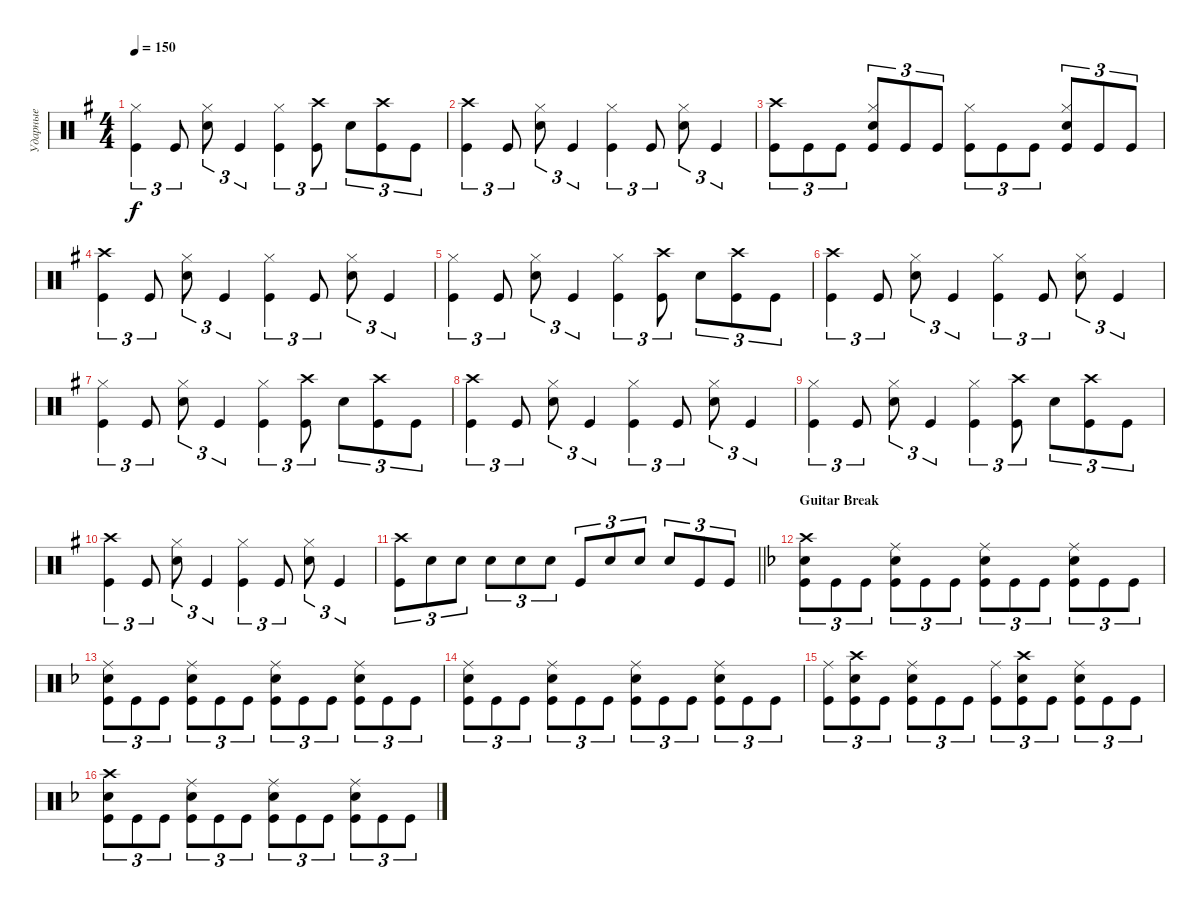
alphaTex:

\track ("Ударные" "Ударные") {instrument percussion}
\staff {score}
\articulation defaults
\ts (4 4)
\tempo 150
\clef neutral
\ks eminor
("Kick (hit)" "Hi-Hat (closed)").4{tu (3 2) dy f} "Kick (hit)".8{tu (3 2)} ("Snare (hit) 2" "Hi-Hat (closed)").8{tu (3 2)} "Kick (hit)".4{tu (3 2)} ("Kick (hit)" "Hi-Hat (closed)").4{tu (3 2)} ("Kick (hit)" "Crash high (hit)").8{tu (3 2)} "Snare (hit) 2".8{tu (3 2)} ("Kick (hit)" "Crash high (hit)").8{tu (3 2)} "Kick (hit)".8{tu (3 2)} |
("Kick (hit)" "Crash high (hit)").4{tu (3 2)} "Kick (hit)".8{tu (3 2)} ("Snare (hit) 2" "Hi-Hat (closed)").8{tu (3 2)} "Kick (hit)".4{tu (3 2)} ("Kick (hit)" "Hi-Hat (closed)").4{tu (3 2)} "Kick (hit)".8{tu (3 2)} ("Snare (hit) 2" "Hi-Hat (closed)").8{tu (3 2)} "Kick (hit)".4{tu (3 2)} |
("Kick (hit)" "Crash high (hit)").8{tu (3 2)} "Kick (hit)".8{tu (3 2)} "Kick (hit)".8{tu (3 2)} ("Snare (hit) 2" "Hi-Hat (closed)" "Kick (hit)").8{tu (3 2)} "Kick (hit)".8{tu (3 2)} "Kick (hit)".8{tu (3 2)} ("Kick (hit)" "Hi-Hat (closed)").8{tu (3 2)} "Kick (hit)".8{tu (3 2)} "Kick (hit)".8{tu (3 2)} ("Snare (hit) 2" "Hi-Hat (closed)" "Kick (hit)").8{tu (3 2)} "Kick (hit)".8{tu (3 2)} "Kick (hit)".8{tu (3 2)} |
("Kick (hit)" "Crash high (hit)").4{tu (3 2)} "Kick (hit)".8{tu (3 2)} ("Snare (hit) 2" "Hi-Hat (closed)").8{tu (3 2)} "Kick (hit)".4{tu (3 2)} ("Kick (hit)" "Hi-Hat (closed)").4{tu (3 2)} "Kick (hit)".8{tu (3 2)} ("Snare (hit) 2" "Hi-Hat (closed)").8{tu (3 2)} "Kick (hit)".4{tu (3 2)} |
("Kick (hit)" "Hi-Hat (closed)").4{tu (3 2)} "Kick (hit)".8{tu (3 2)} ("Snare (hit) 2" "Hi-Hat (closed)").8{tu (3 2)} "Kick (hit)".4{tu (3 2)} ("Kick (hit)" "Hi-Hat (closed)").4{tu (3 2)} ("Kick (hit)" "Crash high (hit)").8{tu (3 2)} "Snare (hit) 2".8{tu (3 2)} ("Kick (hit)" "Crash high (hit)").8{tu (3 2)} "Kick (hit)".8{tu (3 2)} |
("Kick (hit)" "Crash high (hit)").4{tu (3 2)} "Kick (hit)".8{tu (3 2)} ("Snare (hit) 2" "Hi-Hat (closed)").8{tu (3 2)} "Kick (hit)".4{tu (3 2)} ("Kick (hit)" "Hi-Hat (closed)").4{tu (3 2)} "Kick (hit)".8{tu (3 2)} ("Snare (hit) 2" "Hi-Hat (closed)").8{tu (3 2)} "Kick (hit)".4{tu (3 2)} |
("Kick (hit)" "Hi-Hat (closed)").4{tu (3 2)} "Kick (hit)".8{tu (3 2)} ("Snare (hit) 2" "Hi-Hat (closed)").8{tu (3 2)} "Kick (hit)".4{tu (3 2)} ("Kick (hit)" "Hi-Hat (closed)").4{tu (3 2)} ("Kick (hit)" "Crash high (hit)").8{tu (3 2)} "Snare (hit) 2".8{tu (3 2)} ("Kick (hit)" "Crash high (hit)").8{tu (3 2)} "Kick (hit)".8{tu (3 2)} |
("Kick (hit)" "Crash high (hit)").4{tu (3 2)} "Kick (hit)".8{tu (3 2)} ("Snare (hit) 2" "Hi-Hat (closed)").8{tu (3 2)} "Kick (hit)".4{tu (3 2)} ("Kick (hit)" "Hi-Hat (closed)").4{tu (3 2)} "Kick (hit)".8{tu (3 2)} ("Snare (hit) 2" "Hi-Hat (closed)").8{tu (3 2)} "Kick (hit)".4{tu (3 2)} |
("Kick (hit)" "Hi-Hat (closed)").4{tu (3 2)} "Kick (hit)".8{tu (3 2)} ("Snare (hit) 2" "Hi-Hat (closed)").8{tu (3 2)} "Kick (hit)".4{tu (3 2)} ("Kick (hit)" "Hi-Hat (closed)").4{tu (3 2)} ("Kick (hit)" "Crash high (hit)").8{tu (3 2)} "Snare (hit) 2".8{tu (3 2)} ("Kick (hit)" "Crash high (hit)").8{tu (3 2)} "Kick (hit)".8{tu (3 2)} |
("Kick (hit)" "Crash high (hit)").4{tu (3 2)} "Kick (hit)".8{tu (3 2)} ("Snare (hit) 2" "Hi-Hat (closed)").8{tu (3 2)} "Kick (hit)".4{tu (3 2)} ("Kick (hit)" "Hi-Hat (closed)").4{tu (3 2)} "Kick (hit)".8{tu (3 2)} ("Snare (hit) 2" "Hi-Hat (closed)").8{tu (3 2)} "Kick (hit)".4{tu (3 2)} |
\barLineRight lightlight
("Kick (hit)" "Crash high (hit)").8{tu (3 2)} "Snare (hit) 2".8{tu (3 2)} "Snare (hit) 2".8{tu (3 2)} "Snare (hit) 2".8{tu (3 2)} "Snare (hit) 2".8{tu (3 2)} "Snare (hit) 2".8{tu (3 2)} "Kick (hit)".8{tu (3 2)} "Snare (hit) 2".8{tu (3 2)} "Snare (hit) 2".8{tu (3 2)} "Snare (hit) 2".8{tu (3 2)} "Kick (hit)".8{tu (3 2)} "Kick (hit)".8{tu (3 2)} |
\section ("" "Guitar Break")
\ks dminor
("Kick (hit)" "Snare (hit) 2" "Crash high (hit)").8{tu (3 2)} "Kick (hit)".8{tu (3 2)} "Kick (hit)".8{tu (3 2)} ("Snare (hit) 2" "Kick (hit)" "Ride (middle)").8{tu (3 2)} "Kick (hit)".8{tu (3 2)} "Kick (hit)".8{tu (3 2)} ("Kick (hit)" "Ride (middle)" "Snare (hit) 2").8{tu (3 2)} "Kick (hit)".8{tu (3 2)} "Kick (hit)".8{tu (3 2)} ("Kick (hit)" "Snare (hit) 2" "Ride (middle)").8{tu (3 2)} "Kick (hit)".8{tu (3 2)} "Kick (hit)".8{tu (3 2)} |
("Kick (hit)" "Ride (middle)" "Snare (hit) 2").8{tu (3 2)} "Kick (hit)".8{tu (3 2)} "Kick (hit)".8{tu (3 2)} ("Snare (hit) 2" "Kick (hit)" "Ride (middle)").8{tu (3 2)} "Kick (hit)".8{tu (3 2)} "Kick (hit)".8{tu (3 2)} ("Kick (hit)" "Ride (middle)" "Snare (hit) 2").8{tu (3 2)} "Kick (hit)".8{tu (3 2)} "Kick (hit)".8{tu (3 2)} ("Kick (hit)" "Snare (hit) 2" "Ride (middle)").8{tu (3 2)} "Kick (hit)".8{tu (3 2)} "Kick (hit)".8{tu (3 2)} |
("Kick (hit)" "Ride (middle)" "Snare (hit) 2").8{tu (3 2)} "Kick (hit)".8{tu (3 2)} "Kick (hit)".8{tu (3 2)} ("Snare (hit) 2" "Kick (hit)" "Ride (middle)").8{tu (3 2)} "Kick (hit)".8{tu (3 2)} "Kick (hit)".8{tu (3 2)} ("Kick (hit)" "Ride (middle)" "Snare (hit) 2").8{tu (3 2)} "Kick (hit)".8{tu (3 2)} "Kick (hit)".8{tu (3 2)} ("Kick (hit)" "Snare (hit) 2" "Ride (middle)").8{tu (3 2)} "Kick (hit)".8{tu (3 2)} "Kick (hit)".8{tu (3 2)} |
("Kick (hit)" "Ride (middle)").8{tu (3 2)} ("Kick (hit)" "Snare (hit) 2" "Crash high (hit)").8{tu (3 2)} "Kick (hit)".8{tu (3 2)} ("Snare (hit) 2" "Kick (hit)" "Ride (middle)").8{tu (3 2)} "Kick (hit)".8{tu (3 2)} "Kick (hit)".8{tu (3 2)} ("Kick (hit)" "Ride (middle)").8{tu (3 2)} ("Kick (hit)" "Snare (hit) 2" "Crash high (hit)").8{tu (3 2)} "Kick (hit)".8{tu (3 2)} ("Kick (hit)" "Snare (hit) 2" "Ride (middle)").8{tu (3 2)} "Kick (hit)".8{tu (3 2)} "Kick (hit)".8{tu (3 2)} |
("Kick (hit)" "Snare (hit) 2" "Crash high (hit)").8{tu (3 2)} "Kick (hit)".8{tu (3 2)} "Kick (hit)".8{tu (3 2)} ("Snare (hit) 2" "Kick (hit)" "Ride (middle)").8{tu (3 2)} "Kick (hit)".8{tu (3 2)} "Kick (hit)".8{tu (3 2)} ("Kick (hit)" "Ride (middle)" "Snare (hit) 2").8{tu (3 2)} "Kick (hit)".8{tu (3 2)} "Kick (hit)".8{tu (3 2)} ("Kick (hit)" "Snare (hit) 2" "Ride (middle)").8{tu (3 2)} "Kick (hit)".8{tu (3 2)} "Kick (hit)".8{tu (3 2)}
